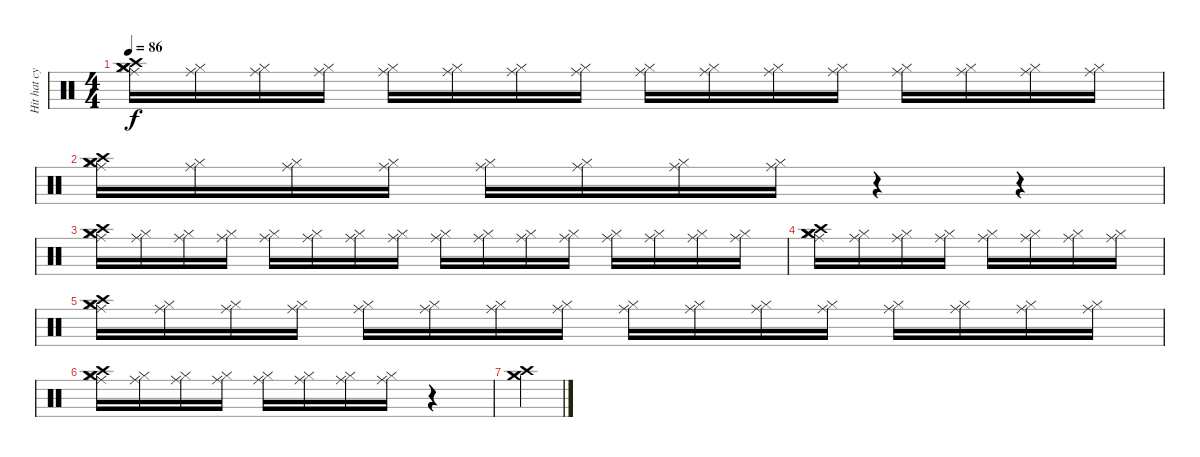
\track ("Hit hat cymbal" "Hit hat cy") {instrument percussion}
\staff {score}
\articulation defaults
\ts (4 4)
\tempo 86
\clef neutral
\ks c
("Ride (middle)" "Hi-Hat (closed)" "Crash medium (hit)" "Crash high (hit)" "Crash medium (hit)").16{dy f} ("Ride (middle)" "Hi-Hat (closed)").16 ("Ride (middle)" "Hi-Hat (closed)").16 ("Ride (middle)" "Hi-Hat (closed)").16 ("Ride (middle)" "Hi-Hat (closed)").16 ("Ride (middle)" "Hi-Hat (closed)").16 ("Ride (middle)" "Hi-Hat (closed)").16 ("Ride (middle)" "Hi-Hat (closed)").16 ("Ride (middle)" "Hi-Hat (closed)").16 ("Ride (middle)" "Hi-Hat (closed)").16 ("Ride (middle)" "Hi-Hat (closed)").16 ("Ride (middle)" "Hi-Hat (closed)").16 ("Ride (middle)" "Hi-Hat (closed)").16 ("Ride (middle)" "Hi-Hat (closed)").16 ("Ride (middle)" "Hi-Hat (closed)").16 ("Ride (middle)" "Hi-Hat (closed)").16 |
("Ride (middle)" "Hi-Hat (closed)" "Crash medium (hit)" "Crash medium (hit)" "Crash high (hit)").16 ("Ride (middle)" "Hi-Hat (closed)").16 ("Ride (middle)" "Hi-Hat (closed)").16 ("Ride (middle)" "Hi-Hat (closed)").16 ("Ride (middle)" "Hi-Hat (closed)").16 ("Ride (middle)" "Hi-Hat (closed)").16 ("Ride (middle)" "Hi-Hat (closed)").16 ("Ride (middle)" "Hi-Hat (closed)").16 r.4 r.4 |
("Ride (middle)" "Hi-Hat (closed)" "Crash medium (hit)" "Crash medium (hit)" "Crash high (hit)").16 ("Ride (middle)" "Hi-Hat (closed)").16 ("Ride (middle)" "Hi-Hat (closed)").16 ("Ride (middle)" "Hi-Hat (closed)").16 ("Ride (middle)" "Hi-Hat (closed)").16 ("Ride (middle)" "Hi-Hat (closed)").16 ("Ride (middle)" "Hi-Hat (closed)").16 ("Ride (middle)" "Hi-Hat (closed)").16 ("Ride (middle)" "Hi-Hat (closed)").16 ("Ride (middle)" "Hi-Hat (closed)").16 ("Ride (middle)" "Hi-Hat (closed)").16 ("Ride (middle)" "Hi-Hat (closed)").16 ("Ride (middle)" "Hi-Hat (closed)").16 ("Ride (middle)" "Hi-Hat (closed)").16 ("Ride (middle)" "Hi-Hat (closed)").16 ("Ride (middle)" "Hi-Hat (closed)").16 |
("Ride (middle)" "Hi-Hat (closed)" "Crash medium (hit)" "Crash medium (hit)" "Crash high (hit)").16 ("Ride (middle)" "Hi-Hat (closed)").16 ("Ride (middle)" "Hi-Hat (closed)").16 ("Ride (middle)" "Hi-Hat (closed)").16 ("Ride (middle)" "Hi-Hat (closed)").16 ("Ride (middle)" "Hi-Hat (closed)").16 ("Ride (middle)" "Hi-Hat (closed)").16 ("Ride (middle)" "Hi-Hat (closed)").16 |
("Ride (middle)" "Hi-Hat (closed)" "Crash medium (hit)" "Crash medium (hit)" "Crash high (hit)").16 ("Ride (middle)" "Hi-Hat (closed)").16 ("Ride (middle)" "Hi-Hat (closed)").16 ("Ride (middle)" "Hi-Hat (closed)").16 ("Ride (middle)" "Hi-Hat (closed)").16 ("Ride (middle)" "Hi-Hat (closed)").16 ("Ride (middle)" "Hi-Hat (closed)").16 ("Ride (middle)" "Hi-Hat (closed)").16 ("Ride (middle)" "Hi-Hat (closed)").16 ("Ride (middle)" "Hi-Hat (closed)").16 ("Ride (middle)" "Hi-Hat (closed)").16 ("Ride (middle)" "Hi-Hat (closed)").16 ("Ride (middle)" "Hi-Hat (closed)").16 ("Ride (middle)" "Hi-Hat (closed)").16 ("Ride (middle)" "Hi-Hat (closed)").16 ("Ride (middle)" "Hi-Hat (closed)").16 |
("Ride (middle)" "Hi-Hat (closed)" "Crash medium (hit)" "Crash medium (hit)" "Crash high (hit)").16 ("Ride (middle)" "Hi-Hat (closed)").16 ("Ride (middle)" "Hi-Hat (closed)").16 ("Ride (middle)" "Hi-Hat (closed)").16 ("Ride (middle)" "Hi-Hat (closed)").16 ("Ride (middle)" "Hi-Hat (closed)").16 ("Ride (middle)" "Hi-Hat (closed)").16 ("Ride (middle)" "Hi-Hat (closed)").16 r.4 |
("Crash medium (hit)" "Crash medium (hit)" "Crash high (hit)").4
